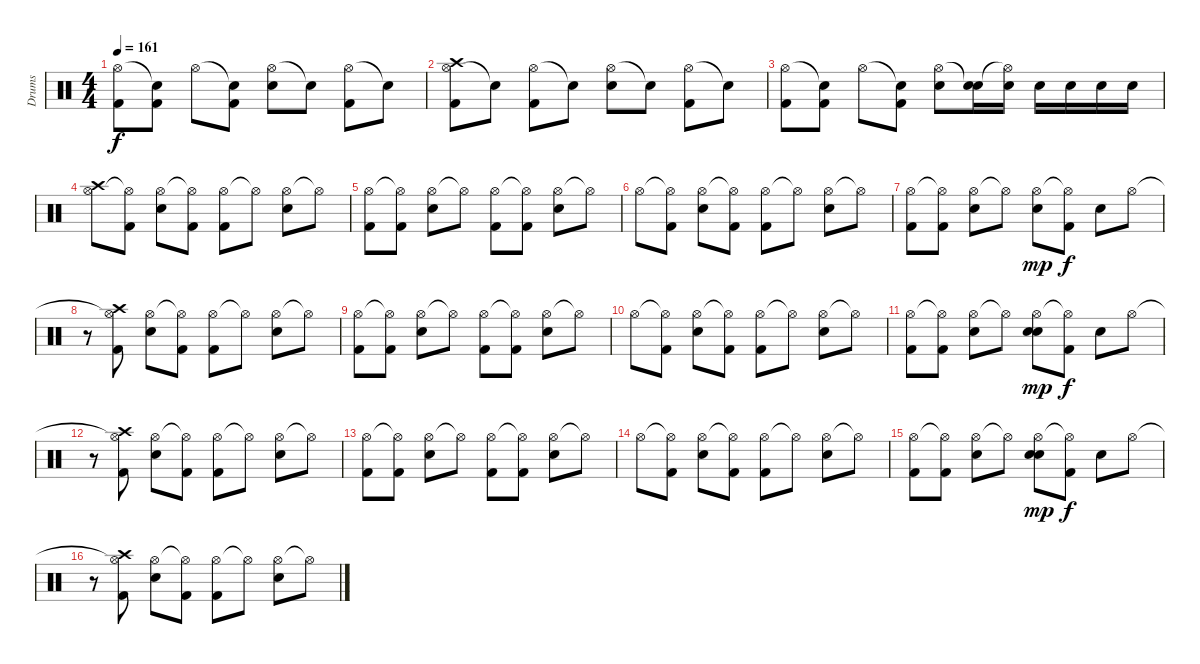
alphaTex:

\track ("Drums" "Drums") {instrument percussion}
\staff {score}
\articulation defaults
\ts (4 4)
\tempo 161
\clef neutral
\ks c
("Hi-Hat (open)" "Kick (hit) 2").8{dy f} ("Snare (hit)"{t} "Kick (hit) 2").8 "Hi-Hat (open)".8 ("Snare (hit)"{t} "Kick (hit) 2").8 ("Hi-Hat (open)" "Electric Snare (hit)").8 "Snare (hit)"{t}.8 ("Hi-Hat (open)" "Kick (hit) 2").8 "Snare (hit)"{t}.8 |
("Hi-Hat (open)" "Kick (hit) 2" "Crash high (hit)").8 "Snare (hit)"{t}.8 ("Hi-Hat (open)" "Kick (hit) 2").8 "Snare (hit)"{t}.8 ("Hi-Hat (open)" "Electric Snare (hit)").8 "Snare (hit)"{t}.8 ("Hi-Hat (open)" "Kick (hit) 2").8 "Snare (hit)"{t}.8 |
("Hi-Hat (open)" "Kick (hit) 2").8 ("Snare (hit)"{t} "Kick (hit) 2").8 "Hi-Hat (open)".8 ("Snare (hit)"{t} "Kick (hit) 2").8 ("Hi-Hat (open)" "Electric Snare (hit)").8 ("Snare (hit)"{t} "Electric Snare (hit)").16 ("Hi-Hat (open)"{t} "Electric Snare (hit)").16 "Electric Snare (hit)".16 "Electric Snare (hit)".16 "Electric Snare (hit)".16 "Electric Snare (hit)".16 |
("Hi-Hat (open)" "Crash high (hit)").8 ("Hi-Hat (open)"{t} "Kick (hit) 2").8 ("Hi-Hat (open)" "Electric Snare (hit)").8 ("Hi-Hat (open)"{t} "Kick (hit) 2").8 ("Hi-Hat (open)" "Kick (hit) 2").8 "Hi-Hat (open)"{t}.8 ("Hi-Hat (open)" "Electric Snare (hit)").8 "Hi-Hat (open)"{t}.8 |
("Hi-Hat (open)" "Kick (hit) 2").8 ("Hi-Hat (open)"{t} "Kick (hit) 2").8 ("Hi-Hat (open)" "Electric Snare (hit)").8 "Hi-Hat (open)"{t}.8 ("Hi-Hat (open)" "Kick (hit) 2").8 ("Hi-Hat (open)"{t} "Kick (hit) 2").8 ("Hi-Hat (open)" "Electric Snare (hit)").8 "Hi-Hat (open)"{t}.8 |
"Hi-Hat (open)".8 ("Hi-Hat (open)"{t} "Kick (hit) 2").8 ("Hi-Hat (open)" "Electric Snare (hit)").8 ("Hi-Hat (open)"{t} "Kick (hit) 2").8 ("Hi-Hat (open)" "Kick (hit) 2").8 "Hi-Hat (open)"{t}.8 ("Hi-Hat (open)" "Electric Snare (hit)").8 "Hi-Hat (open)"{t}.8 |
("Hi-Hat (open)" "Kick (hit) 2").8 ("Hi-Hat (open)"{t} "Kick (hit) 2").8 ("Hi-Hat (open)" "Electric Snare (hit)").8 "Hi-Hat (open)"{t}.8 ("Hi-Hat (open)" "Electric Snare (hit)").8{dy mp} ("Hi-Hat (open)"{t} "Kick (hit) 2").8{dy f} "Electric Snare (hit)".8 "Hi-Hat (open)".8 |
r.8 ("Hi-Hat (open)"{t} "Kick (hit) 2" "Crash high (hit)").8 ("Hi-Hat (open)" "Electric Snare (hit)").8 ("Hi-Hat (open)"{t} "Kick (hit) 2").8 ("Hi-Hat (open)" "Kick (hit) 2").8 "Hi-Hat (open)"{t}.8 ("Hi-Hat (open)" "Electric Snare (hit)").8 "Hi-Hat (open)"{t}.8 |
("Hi-Hat (open)" "Kick (hit) 2").8 ("Hi-Hat (open)"{t} "Kick (hit) 2").8 ("Hi-Hat (open)" "Electric Snare (hit)").8 "Hi-Hat (open)"{t}.8 ("Hi-Hat (open)" "Kick (hit) 2").8 ("Hi-Hat (open)"{t} "Kick (hit) 2").8 ("Hi-Hat (open)" "Electric Snare (hit)").8 "Hi-Hat (open)"{t}.8 |
"Hi-Hat (open)".8 ("Hi-Hat (open)"{t} "Kick (hit) 2").8 ("Hi-Hat (open)" "Electric Snare (hit)").8 ("Hi-Hat (open)"{t} "Kick (hit) 2").8 ("Hi-Hat (open)" "Kick (hit) 2").8 "Hi-Hat (open)"{t}.8 ("Hi-Hat (open)" "Electric Snare (hit)").8 "Hi-Hat (open)"{t}.8 |
("Hi-Hat (open)" "Kick (hit) 2").8 ("Hi-Hat (open)"{t} "Kick (hit) 2").8 ("Hi-Hat (open)" "Electric Snare (hit)").8 "Hi-Hat (open)"{t}.8 ("Hi-Hat (open)" "Electric Snare (hit)" "Electric Snare (hit)").8{dy mp} ("Hi-Hat (open)"{t} "Kick (hit) 2").8{dy f} "Electric Snare (hit)".8 "Hi-Hat (open)".8 |
r.8 ("Hi-Hat (open)"{t} "Kick (hit) 2" "Crash high (hit)").8 ("Hi-Hat (open)" "Electric Snare (hit)").8 ("Hi-Hat (open)"{t} "Kick (hit) 2").8 ("Hi-Hat (open)" "Kick (hit) 2").8 "Hi-Hat (open)"{t}.8 ("Hi-Hat (open)" "Electric Snare (hit)").8 "Hi-Hat (open)"{t}.8 |
("Hi-Hat (open)" "Kick (hit) 2").8 ("Hi-Hat (open)"{t} "Kick (hit) 2").8 ("Hi-Hat (open)" "Electric Snare (hit)").8 "Hi-Hat (open)"{t}.8 ("Hi-Hat (open)" "Kick (hit) 2").8 ("Hi-Hat (open)"{t} "Kick (hit) 2").8 ("Hi-Hat (open)" "Electric Snare (hit)").8 "Hi-Hat (open)"{t}.8 |
"Hi-Hat (open)".8 ("Hi-Hat (open)"{t} "Kick (hit) 2").8 ("Hi-Hat (open)" "Electric Snare (hit)").8 ("Hi-Hat (open)"{t} "Kick (hit) 2").8 ("Hi-Hat (open)" "Kick (hit) 2").8 "Hi-Hat (open)"{t}.8 ("Hi-Hat (open)" "Electric Snare (hit)").8 "Hi-Hat (open)"{t}.8 |
("Hi-Hat (open)" "Kick (hit) 2").8 ("Hi-Hat (open)"{t} "Kick (hit) 2").8 ("Hi-Hat (open)" "Electric Snare (hit)").8 "Hi-Hat (open)"{t}.8 ("Hi-Hat (open)" "Electric Snare (hit)" "Electric Snare (hit)").8{dy mp} ("Hi-Hat (open)"{t} "Kick (hit) 2").8{dy f} "Electric Snare (hit)".8 "Hi-Hat (open)".8 |
r.8 ("Hi-Hat (open)"{t} "Kick (hit) 2" "Crash high (hit)").8 ("Hi-Hat (open)" "Electric Snare (hit)").8 ("Hi-Hat (open)"{t} "Kick (hit) 2").8 ("Hi-Hat (open)" "Kick (hit) 2").8 "Hi-Hat (open)"{t}.8 ("Hi-Hat (open)" "Electric Snare (hit)").8 "Hi-Hat (open)"{t}.8
